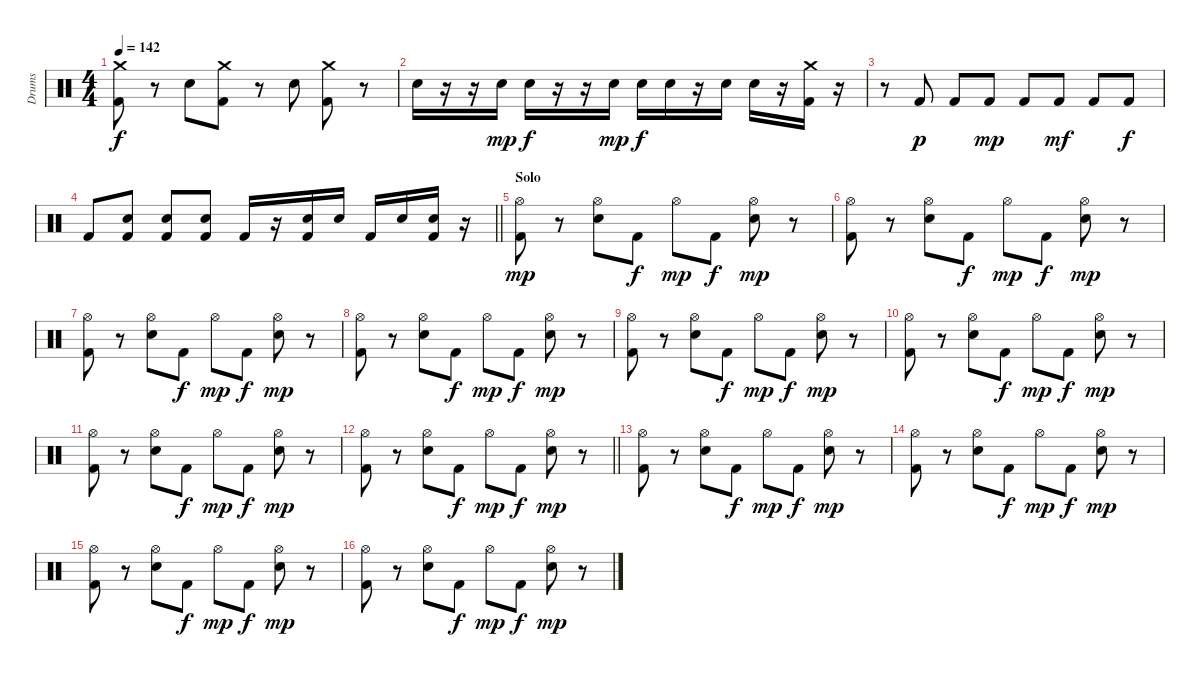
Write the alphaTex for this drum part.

\track ("Drums" "Drums") {instrument percussion}
\staff {score}
\articulation defaults
\ts (4 4)
\tempo 142
\clef neutral
\ks c
("Crash medium (hit)" "Kick (hit) 2").8{dy f} r.8 "Snare (hit) 2".8 ("Crash medium (hit)" "Kick (hit) 2").8 r.8 "Snare (hit) 2".8 ("Crash medium (hit)" "Kick (hit) 2").8 r.8 |
"Snare (hit) 2".16 r.16 r.16 "Snare (hit) 2".16{dy mp} "Snare (hit) 2".16{dy f} r.16 r.16 "Snare (hit) 2".16{dy mp} "Snare (hit) 2".16{dy f} "Snare (hit) 2".16 r.16 "Snare (hit) 2".16 "Snare (hit) 2".16 r.16 ("Crash medium (hit)" "Kick (hit) 2").16 r.16 |
r.8 "Kick (hit) 2".8{dy p} "Kick (hit) 2".8 "Kick (hit) 2".8{dy mp} "Kick (hit) 2".8 "Kick (hit) 2".8{dy mf} "Kick (hit) 2".8 "Kick (hit) 2".8{dy f} |
\barLineRight lightlight "Kick (hit) 2".8
("Snare (hit) 2" "Kick (hit) 2").8 ("Snare (hit) 2" "Kick (hit) 2").8 ("Snare (hit) 2" "Kick (hit) 2").8 "Kick (hit) 2".16 r.16 ("Snare (hit) 2" "Kick (hit) 2").16 "Snare (hit) 2".16 "Kick (hit) 2".16 "Snare (hit) 2".16 ("Snare (hit) 2" "Kick (hit) 2").16 r.16 |
\section ("" "Solo")
("Hi-Hat (open)" "Kick (hit) 2").8{dy mp} r.8 ("Hi-Hat (open)" "Snare (hit) 2").8 "Kick (hit) 2".8{dy f} "Hi-Hat (open)".8{dy mp} "Kick (hit) 2".8{dy f} ("Hi-Hat (open)" "Snare (hit) 2").8{dy mp} r.8 |
("Hi-Hat (open)" "Kick (hit) 2").8 r.8 ("Hi-Hat (open)" "Snare (hit) 2").8 "Kick (hit) 2".8{dy f} "Hi-Hat (open)".8{dy mp} "Kick (hit) 2".8{dy f} ("Hi-Hat (open)" "Snare (hit) 2").8{dy mp} r.8 |
("Hi-Hat (open)" "Kick (hit) 2").8 r.8 ("Hi-Hat (open)" "Snare (hit) 2").8 "Kick (hit) 2".8{dy f} "Hi-Hat (open)".8{dy mp} "Kick (hit) 2".8{dy f} ("Hi-Hat (open)" "Snare (hit) 2").8{dy mp} r.8 |
("Hi-Hat (open)" "Kick (hit) 2").8 r.8 ("Hi-Hat (open)" "Snare (hit) 2").8 "Kick (hit) 2".8{dy f} "Hi-Hat (open)".8{dy mp} "Kick (hit) 2".8{dy f} ("Hi-Hat (open)" "Snare (hit) 2").8{dy mp} r.8 |
("Hi-Hat (open)" "Kick (hit) 2").8 r.8 ("Hi-Hat (open)" "Snare (hit) 2").8 "Kick (hit) 2".8{dy f} "Hi-Hat (open)".8{dy mp} "Kick (hit) 2".8{dy f} ("Hi-Hat (open)" "Snare (hit) 2").8{dy mp} r.8 |
("Hi-Hat (open)" "Kick (hit) 2").8 r.8 ("Hi-Hat (open)" "Snare (hit) 2").8 "Kick (hit) 2".8{dy f} "Hi-Hat (open)".8{dy mp} "Kick (hit) 2".8{dy f} ("Hi-Hat (open)" "Snare (hit) 2").8{dy mp} r.8 |
("Hi-Hat (open)" "Kick (hit) 2").8 r.8 ("Hi-Hat (open)" "Snare (hit) 2").8 "Kick (hit) 2".8{dy f} "Hi-Hat (open)".8{dy mp} "Kick (hit) 2".8{dy f} ("Hi-Hat (open)" "Snare (hit) 2").8{dy mp} r.8 |
\barLineRight lightlight
("Hi-Hat (open)" "Kick (hit) 2").8 r.8 ("Hi-Hat (open)" "Snare (hit) 2").8 "Kick (hit) 2".8{dy f} "Hi-Hat (open)".8{dy mp} "Kick (hit) 2".8{dy f} ("Hi-Hat (open)" "Snare (hit) 2").8{dy mp} r.8 |
("Hi-Hat (open)" "Kick (hit) 2").8 r.8 ("Hi-Hat (open)" "Snare (hit) 2").8 "Kick (hit) 2".8{dy f} "Hi-Hat (open)".8{dy mp} "Kick (hit) 2".8{dy f} ("Hi-Hat (open)" "Snare (hit) 2").8{dy mp} r.8 |
("Hi-Hat (open)" "Kick (hit) 2").8 r.8 ("Hi-Hat (open)" "Snare (hit) 2").8 "Kick (hit) 2".8{dy f} "Hi-Hat (open)".8{dy mp} "Kick (hit) 2".8{dy f} ("Hi-Hat (open)" "Snare (hit) 2").8{dy mp} r.8 |
("Hi-Hat (open)" "Kick (hit) 2").8 r.8 ("Hi-Hat (open)" "Snare (hit) 2").8 "Kick (hit) 2".8{dy f} "Hi-Hat (open)".8{dy mp} "Kick (hit) 2".8{dy f} ("Hi-Hat (open)" "Snare (hit) 2").8{dy mp} r.8 |
("Hi-Hat (open)" "Kick (hit) 2").8 r.8 ("Hi-Hat (open)" "Snare (hit) 2").8 "Kick (hit) 2".8{dy f} "Hi-Hat (open)".8{dy mp} "Kick (hit) 2".8{dy f} ("Hi-Hat (open)" "Snare (hit) 2").8{dy mp} r.8
